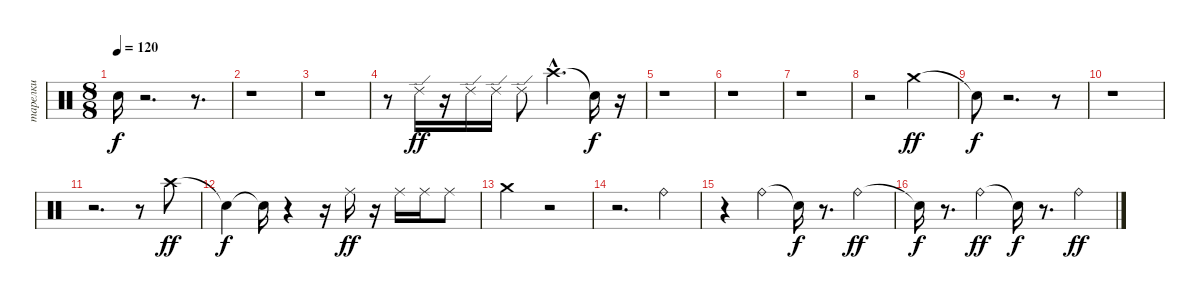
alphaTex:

\track ("тарелки" "тарелки") {instrument percussion}
\staff {score}
\articulation defaults
\ts (8 8)
\tempo 120
\clef neutral
\ks c "Snare (hit)"{t}.16{dy f}
r.2{d} r.8{d} |
r.1 |
r.1 |
r.8 "Ride (edge) 2".16{dy ff} r.16 "Ride (edge) 2".16 "Ride (edge) 2".16 "Ride (edge) 2".8 "Crash high (hit)"{hac}.4{d} "Snare (hit)"{t}.16{dy f} r.16 |
r.1 |
r.1 |
r.1 |
r.2 "Crash medium (hit)".2{dy ff} |
"Snare (hit)"{t}.8{dy f} r.2{d} r.8 |
r.1 |
r.2{d} r.8 "Crash high (hit)".8{dy ff} |
"Snare (hit)"{t}.4{dy f} "Snare (hit)"{t}.16 r.4 r.16 "Ride (middle)".16{dy ff} r.16 "Ride (middle)".16 "Ride (middle)".16 "Ride (middle)".8 |
"Crash medium (hit)".2 r.2 |
r.2{d} "Ride (bell)".4 |
r.4 "Ride (bell)".4 "Snare (hit)"{t}.16{dy f} r.8{d} "Ride (bell)".4{dy ff} |
"Snare (hit)"{t}.16{dy f} r.8{d} "Ride (bell)".4{dy ff} "Snare (hit)"{t}.16{dy f} r.8{d} "Ride (bell)".4{dy ff}
